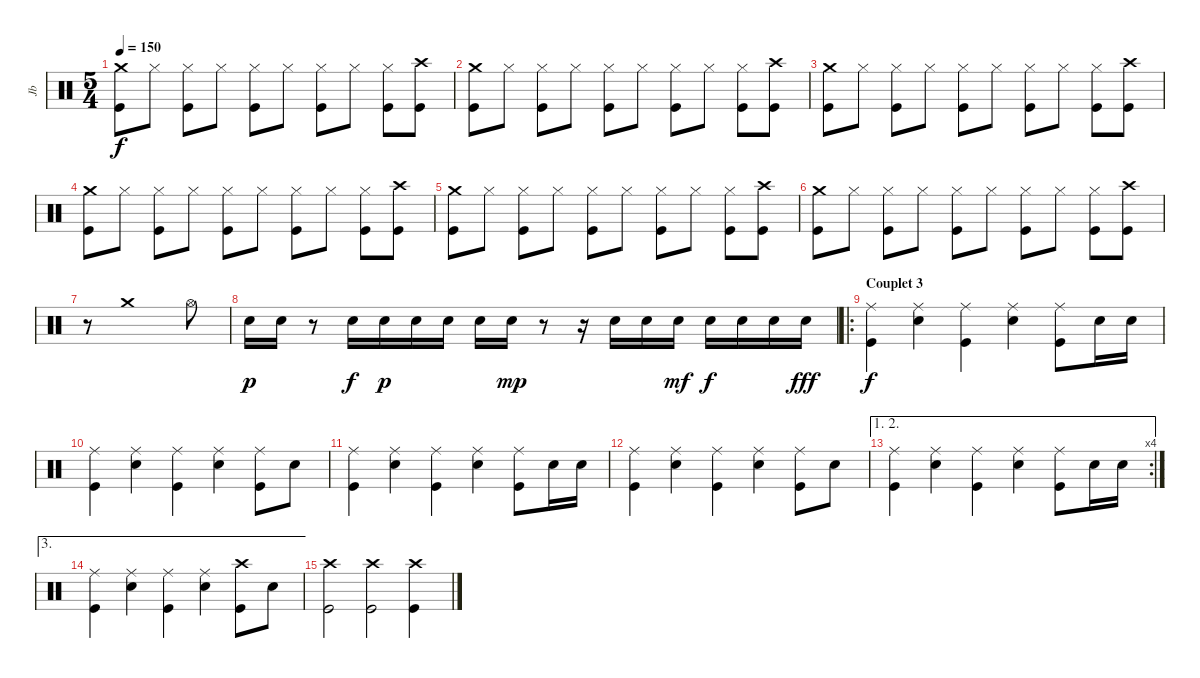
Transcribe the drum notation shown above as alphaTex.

\track ("Jb" "Jb") {instrument percussion}
\staff {score}
\articulation defaults
\ts (5 4)
\tempo 150
\clef neutral
\ks c
("Crash medium (hit)" "Kick (hit)").8{dy f} "Hi-Hat (closed)".8 ("Hi-Hat (closed)" "Kick (hit)").8 "Hi-Hat (closed)".8 ("Hi-Hat (closed)" "Kick (hit)").8 "Hi-Hat (closed)".8 ("Hi-Hat (closed)" "Kick (hit)").8 "Hi-Hat (closed)".8 ("Hi-Hat (closed)" "Kick (hit)").8 ("Crash high (hit)" "Kick (hit)").8 |
("Crash medium (hit)" "Kick (hit)").8 "Hi-Hat (closed)".8 ("Hi-Hat (closed)" "Kick (hit)").8 "Hi-Hat (closed)".8 ("Hi-Hat (closed)" "Kick (hit)").8 "Hi-Hat (closed)".8 ("Hi-Hat (closed)" "Kick (hit)").8 "Hi-Hat (closed)".8 ("Hi-Hat (closed)" "Kick (hit)").8 ("Crash high (hit)" "Kick (hit)").8 |
("Crash medium (hit)" "Kick (hit)").8 "Hi-Hat (closed)".8 ("Hi-Hat (closed)" "Kick (hit)").8 "Hi-Hat (closed)".8 ("Hi-Hat (closed)" "Kick (hit)").8 "Hi-Hat (closed)".8 ("Hi-Hat (closed)" "Kick (hit)").8 "Hi-Hat (closed)".8 ("Hi-Hat (closed)" "Kick (hit)").8 ("Crash high (hit)" "Kick (hit)").8 |
("Crash medium (hit)" "Kick (hit)").8 "Hi-Hat (closed)".8 ("Hi-Hat (closed)" "Kick (hit)").8 "Hi-Hat (closed)".8 ("Hi-Hat (closed)" "Kick (hit)").8 "Hi-Hat (closed)".8 ("Hi-Hat (closed)" "Kick (hit)").8 "Hi-Hat (closed)".8 ("Hi-Hat (closed)" "Kick (hit)").8 ("Crash high (hit)" "Kick (hit)").8 |
("Crash medium (hit)" "Kick (hit)").8 "Hi-Hat (closed)".8 ("Hi-Hat (closed)" "Kick (hit)").8 "Hi-Hat (closed)".8 ("Hi-Hat (closed)" "Kick (hit)").8 "Hi-Hat (closed)".8 ("Hi-Hat (closed)" "Kick (hit)").8 "Hi-Hat (closed)".8 ("Hi-Hat (closed)" "Kick (hit)").8 ("Crash high (hit)" "Kick (hit)").8 |
("Crash medium (hit)" "Kick (hit)").8 "Hi-Hat (closed)".8 ("Hi-Hat (closed)" "Kick (hit)").8 "Hi-Hat (closed)".8 ("Hi-Hat (closed)" "Kick (hit)").8 "Hi-Hat (closed)".8 ("Hi-Hat (closed)" "Kick (hit)").8 "Hi-Hat (closed)".8 ("Hi-Hat (closed)" "Kick (hit)").8 ("Crash high (hit)" "Kick (hit)").8 |
r.8 "Crash medium (hit)".1 "Hi-Hat (open)".8 |
"Electric Snare (hit)".16{dy p} "Electric Snare (hit)".16 r.8 "Electric Snare (hit)".16{dy f} "Electric Snare (hit)".16{dy p} "Electric Snare (hit)".16 "Electric Snare (hit)".16 "Electric Snare (hit)".16 "Electric Snare (hit)".16{dy mp} r.8 r.16 "Electric Snare (hit)".16 "Electric Snare (hit)".16 "Electric Snare (hit)".16{dy mf} "Electric Snare (hit)".16{dy f} "Electric Snare (hit)".16 "Electric Snare (hit)".16 "Electric Snare (hit)".16{dy fff} |
\ro
\section ("" "Couplet 3")
("Ride (middle)" "Kick (hit)").4{dy f} ("Ride (middle)" "Electric Snare (hit)").4 ("Ride (middle)" "Kick (hit)").4 ("Ride (middle)" "Electric Snare (hit)").4 ("Ride (middle)" "Kick (hit)").8 "Electric Snare (hit)".16 "Electric Snare (hit)".16 |
("Ride (middle)" "Kick (hit)").4 ("Ride (middle)" "Electric Snare (hit)").4 ("Ride (middle)" "Kick (hit)").4 ("Ride (middle)" "Electric Snare (hit)").4 ("Ride (middle)" "Kick (hit)").8 "Electric Snare (hit)".8 |
("Ride (middle)" "Kick (hit)").4 ("Ride (middle)" "Electric Snare (hit)").4 ("Ride (middle)" "Kick (hit)").4 ("Ride (middle)" "Electric Snare (hit)").4 ("Ride (middle)" "Kick (hit)").8 "Electric Snare (hit)".16 "Electric Snare (hit)".16 |
("Ride (middle)" "Kick (hit)").4 ("Ride (middle)" "Electric Snare (hit)").4 ("Ride (middle)" "Kick (hit)").4 ("Ride (middle)" "Electric Snare (hit)").4 ("Ride (middle)" "Kick (hit)").8 "Electric Snare (hit)".8 |
\ae (1 2)
\rc 4
("Ride (middle)" "Kick (hit)").4 ("Ride (middle)" "Electric Snare (hit)").4 ("Ride (middle)" "Kick (hit)").4 ("Ride (middle)" "Electric Snare (hit)").4 ("Ride (middle)" "Kick (hit)").8 "Electric Snare (hit)".16 "Electric Snare (hit)".16 |
\ae 3
("Ride (middle)" "Kick (hit)").4 ("Ride (middle)" "Electric Snare (hit)").4 ("Ride (middle)" "Kick (hit)").4 ("Ride (middle)" "Electric Snare (hit)").4 ("Crash high (hit)" "Kick (hit)").8 "Electric Snare (hit)".8 |
("Crash high (hit)" "Kick (hit)").2 ("Crash high (hit)" "Kick (hit)").2 ("Crash high (hit)" "Kick (hit)").4
